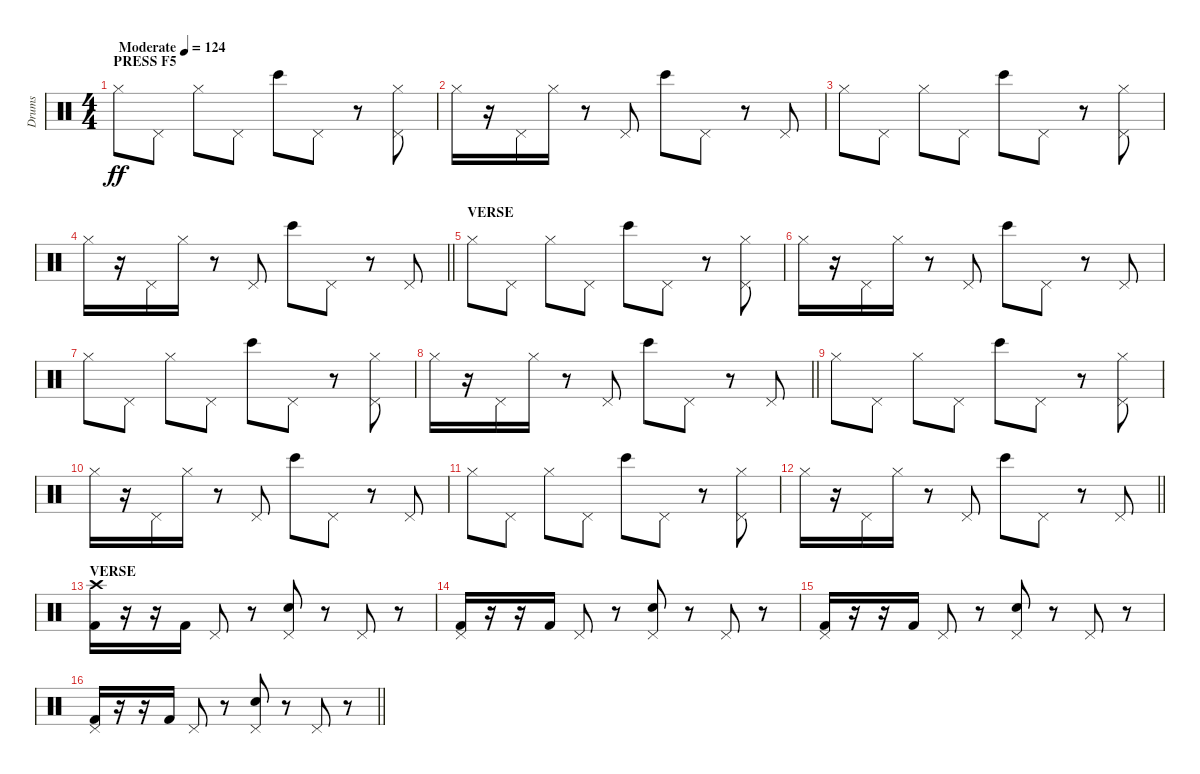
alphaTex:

\track ("Drums" "Drums") {instrument percussion}
\staff {score}
\articulation defaults
\ts (4 4)
\section ("" "PRESS F5")
\tempo (124 "Moderate")
\clef neutral
\ks c "Hi-Hat (closed)".8{dy ff} "Pedal Hi-Hat (hit)".8 "Hi-Hat (closed)".8 "Pedal Hi-Hat (hit)".8 "Bongo High (hit)".8 "Pedal Hi-Hat (hit)".8
r.8 ("Pedal Hi-Hat (hit)" "Hi-Hat (closed)").8 |
"Hi-Hat (closed)".16 r.16 "Pedal Hi-Hat (hit)".16 "Hi-Hat (closed)".16 r.8 "Pedal Hi-Hat (hit)".8 "Bongo High (hit)".8 "Pedal Hi-Hat (hit)".8 r.8 "Pedal Hi-Hat (hit)".8 |
"Hi-Hat (closed)".8 "Pedal Hi-Hat (hit)".8 "Hi-Hat (closed)".8 "Pedal Hi-Hat (hit)".8 "Bongo High (hit)".8 "Pedal Hi-Hat (hit)".8 r.8 ("Pedal Hi-Hat (hit)" "Hi-Hat (closed)").8 |
\barLineRight lightlight "Hi-Hat (closed)".16
r.16 "Pedal Hi-Hat (hit)".16 "Hi-Hat (closed)".16 r.8 "Pedal Hi-Hat (hit)".8 "Bongo High (hit)".8 "Pedal Hi-Hat (hit)".8 r.8 "Pedal Hi-Hat (hit)".8 |
\section ("" "VERSE")
"Hi-Hat (closed)".8 "Pedal Hi-Hat (hit)".8 "Hi-Hat (closed)".8 "Pedal Hi-Hat (hit)".8 "Bongo High (hit)".8 "Pedal Hi-Hat (hit)".8 r.8 ("Pedal Hi-Hat (hit)" "Hi-Hat (closed)").8 |
"Hi-Hat (closed)".16 r.16 "Pedal Hi-Hat (hit)".16 "Hi-Hat (closed)".16 r.8 "Pedal Hi-Hat (hit)".8 "Bongo High (hit)".8 "Pedal Hi-Hat (hit)".8 r.8 "Pedal Hi-Hat (hit)".8 |
"Hi-Hat (closed)".8 "Pedal Hi-Hat (hit)".8 "Hi-Hat (closed)".8 "Pedal Hi-Hat (hit)".8 "Bongo High (hit)".8 "Pedal Hi-Hat (hit)".8 r.8 ("Pedal Hi-Hat (hit)" "Hi-Hat (closed)").8 |
\barLineRight lightlight "Hi-Hat (closed)".16
r.16 "Pedal Hi-Hat (hit)".16 "Hi-Hat (closed)".16 r.8 "Pedal Hi-Hat (hit)".8 "Bongo High (hit)".8 "Pedal Hi-Hat (hit)".8 r.8 "Pedal Hi-Hat (hit)".8 |
\section ("" "")
"Hi-Hat (closed)".8 "Pedal Hi-Hat (hit)".8 "Hi-Hat (closed)".8 "Pedal Hi-Hat (hit)".8 "Bongo High (hit)".8 "Pedal Hi-Hat (hit)".8 r.8 ("Pedal Hi-Hat (hit)" "Hi-Hat (closed)").8 |
"Hi-Hat (closed)".16 r.16 "Pedal Hi-Hat (hit)".16 "Hi-Hat (closed)".16 r.8 "Pedal Hi-Hat (hit)".8 "Bongo High (hit)".8 "Pedal Hi-Hat (hit)".8 r.8 "Pedal Hi-Hat (hit)".8 |
"Hi-Hat (closed)".8 "Pedal Hi-Hat (hit)".8 "Hi-Hat (closed)".8 "Pedal Hi-Hat (hit)".8 "Bongo High (hit)".8 "Pedal Hi-Hat (hit)".8 r.8 ("Pedal Hi-Hat (hit)" "Hi-Hat (closed)").8 |
\barLineRight lightlight "Hi-Hat (closed)".16
r.16 "Pedal Hi-Hat (hit)".16 "Hi-Hat (closed)".16 r.8 "Pedal Hi-Hat (hit)".8 "Bongo High (hit)".8 "Pedal Hi-Hat (hit)".8 r.8 "Pedal Hi-Hat (hit)".8 |
\section ("" "VERSE")
("Crash high (hit)" "Kick (hit) 2").16 r.16 r.16 "Kick (hit) 2".16 "Pedal Hi-Hat (hit)".8 r.8 ("Pedal Hi-Hat (hit)" "Electric Snare (hit)").8 r.8 "Pedal Hi-Hat (hit)".8 r.8 |
("Pedal Hi-Hat (hit)" "Kick (hit) 2").16 r.16 r.16 "Kick (hit) 2".16 "Pedal Hi-Hat (hit)".8 r.8 ("Pedal Hi-Hat (hit)" "Electric Snare (hit)").8 r.8 "Pedal Hi-Hat (hit)".8 r.8 |
("Pedal Hi-Hat (hit)" "Kick (hit) 2").16 r.16 r.16 "Kick (hit) 2".16 "Pedal Hi-Hat (hit)".8 r.8 ("Pedal Hi-Hat (hit)" "Electric Snare (hit)").8 r.8 "Pedal Hi-Hat (hit)".8 r.8 |
\barLineRight lightlight
("Pedal Hi-Hat (hit)" "Kick (hit) 2").16 r.16 r.16 "Kick (hit) 2".16 "Pedal Hi-Hat (hit)".8 r.8 ("Pedal Hi-Hat (hit)" "Electric Snare (hit)").8 r.8 "Pedal Hi-Hat (hit)".8 r.8
